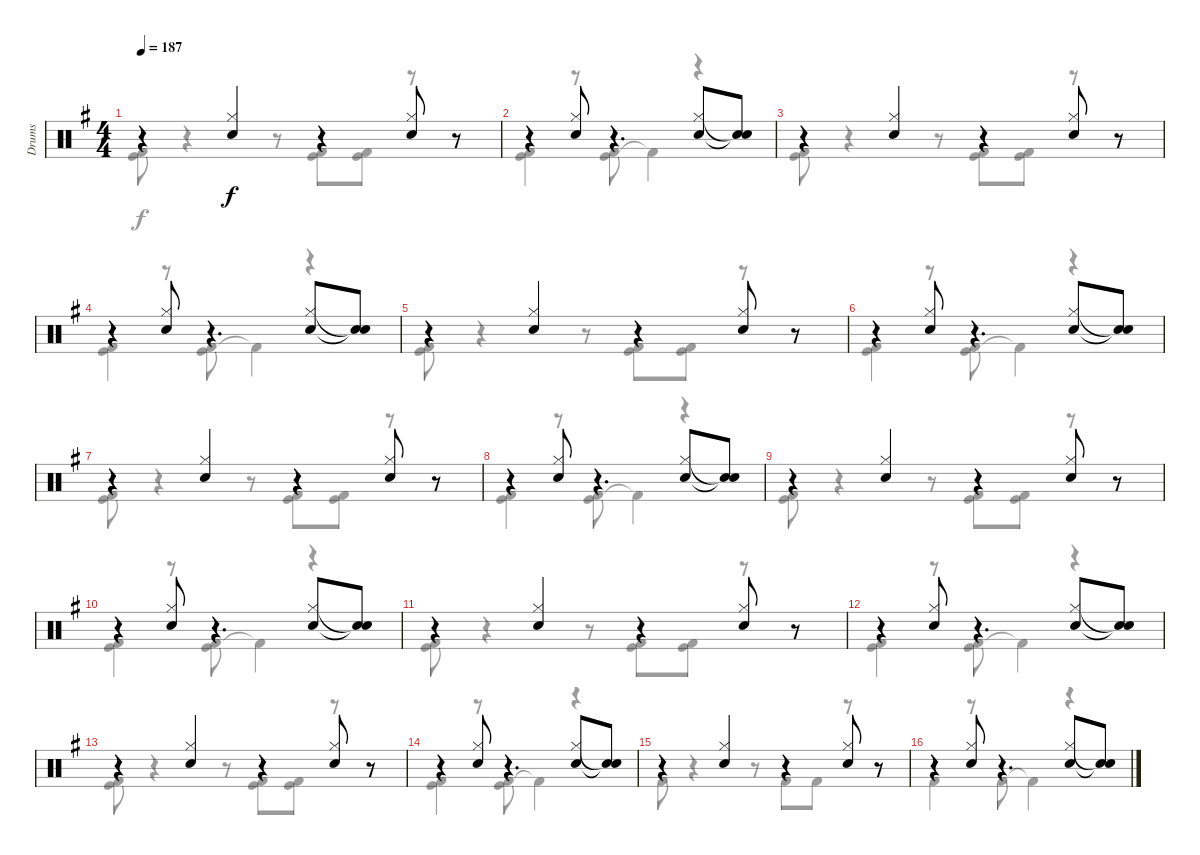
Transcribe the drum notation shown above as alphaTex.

\track ("Drums" "Drums") {instrument percussion}
\staff {score}
\articulation defaults
\voice
\ts (4 4)
\tempo 187
\clef neutral
\ks g
r.4{dy f} ("Hi-Hat (closed)" "Electric Snare (hit)").4 r.4 ("Hi-Hat (closed)" "Electric Snare (hit)").8 r.8 |
r.4 ("Hi-Hat (closed)" "Electric Snare (hit)").8 r.4{d} ("Hi-Hat (closed)" "Electric Snare (hit)").8 ("Snare (hit)"{t} "Snare (hit)"{t}).8 |
r.4 ("Hi-Hat (closed)" "Electric Snare (hit)").4 r.4 ("Hi-Hat (closed)" "Electric Snare (hit)").8 r.8 |
r.4 ("Hi-Hat (closed)" "Electric Snare (hit)").8 r.4{d} ("Hi-Hat (closed)" "Electric Snare (hit)").8 ("Snare (hit)"{t} "Snare (hit)"{t}).8 |
r.4 ("Hi-Hat (closed)" "Electric Snare (hit)").4 r.4 ("Hi-Hat (closed)" "Electric Snare (hit)").8 r.8 |
r.4 ("Hi-Hat (closed)" "Electric Snare (hit)").8 r.4{d} ("Hi-Hat (closed)" "Electric Snare (hit)").8 ("Snare (hit)"{t} "Snare (hit)"{t}).8 |
r.4 ("Hi-Hat (closed)" "Electric Snare (hit)").4 r.4 ("Hi-Hat (closed)" "Electric Snare (hit)").8 r.8 |
r.4 ("Hi-Hat (closed)" "Electric Snare (hit)").8 r.4{d} ("Hi-Hat (closed)" "Electric Snare (hit)").8 ("Snare (hit)"{t} "Snare (hit)"{t}).8 |
r.4 ("Hi-Hat (closed)" "Electric Snare (hit)").4 r.4 ("Hi-Hat (closed)" "Electric Snare (hit)").8 r.8 |
r.4 ("Hi-Hat (closed)" "Electric Snare (hit)").8 r.4{d} ("Hi-Hat (closed)" "Electric Snare (hit)").8 ("Snare (hit)"{t} "Snare (hit)"{t}).8 |
r.4 ("Hi-Hat (closed)" "Electric Snare (hit)").4 r.4 ("Hi-Hat (closed)" "Electric Snare (hit)").8 r.8 |
r.4 ("Hi-Hat (closed)" "Electric Snare (hit)").8 r.4{d} ("Hi-Hat (closed)" "Electric Snare (hit)").8 ("Snare (hit)"{t} "Snare (hit)"{t}).8 |
r.4 ("Hi-Hat (closed)" "Electric Snare (hit)").4 r.4 ("Hi-Hat (closed)" "Electric Snare (hit)").8 r.8 |
r.4 ("Hi-Hat (closed)" "Electric Snare (hit)").8 r.4{d} ("Hi-Hat (closed)" "Electric Snare (hit)").8 ("Snare (hit)"{t} "Snare (hit)"{t}).8 |
r.4 ("Hi-Hat (closed)" "Electric Snare (hit)").4 r.4 ("Hi-Hat (closed)" "Electric Snare (hit)").8 r.8 |
r.4 ("Hi-Hat (closed)" "Electric Snare (hit)").8 r.4{d} ("Hi-Hat (closed)" "Electric Snare (hit)").8 ("Snare (hit)"{t} "Snare (hit)"{t}).8
\voice
\clef neutral
\ottava regular
\simile none
\ks g
("Kick (hit)" "Kick (hit) 2").8{dy f} r.4 r.8 ("Kick (hit)" "Kick (hit) 2").8 ("Kick (hit)" "Kick (hit) 2").8 r.8 r.8 |
("Kick (hit)" "Kick (hit) 2").4 r.8 ("Kick (hit)" "Kick (hit) 2").8 "Kick (hit) 2"{t}.4 r.4 |
("Kick (hit)" "Kick (hit) 2").8 r.4 r.8 ("Kick (hit)" "Kick (hit) 2").8 ("Kick (hit)" "Kick (hit) 2").8 r.8 r.8 |
("Kick (hit)" "Kick (hit) 2").4 r.8 ("Kick (hit)" "Kick (hit) 2").8 "Kick (hit) 2"{t}.4 r.4 |
("Kick (hit)" "Kick (hit) 2").8 r.4 r.8 ("Kick (hit)" "Kick (hit) 2").8 ("Kick (hit)" "Kick (hit) 2").8 r.8 r.8 |
("Kick (hit)" "Kick (hit) 2").4 r.8 ("Kick (hit)" "Kick (hit) 2").8 "Kick (hit) 2"{t}.4 r.4 |
("Kick (hit)" "Kick (hit) 2").8 r.4 r.8 ("Kick (hit)" "Kick (hit) 2").8 ("Kick (hit)" "Kick (hit) 2").8 r.8 r.8 |
("Kick (hit)" "Kick (hit) 2").4 r.8 ("Kick (hit)" "Kick (hit) 2").8 "Kick (hit) 2"{t}.4 r.4 |
("Kick (hit)" "Kick (hit) 2").8 r.4 r.8 ("Kick (hit)" "Kick (hit) 2").8 ("Kick (hit)" "Kick (hit) 2").8 r.8 r.8 |
("Kick (hit)" "Kick (hit) 2").4 r.8 ("Kick (hit)" "Kick (hit) 2").8 "Kick (hit) 2"{t}.4 r.4 |
("Kick (hit)" "Kick (hit) 2").8 r.4 r.8 ("Kick (hit)" "Kick (hit) 2").8 ("Kick (hit)" "Kick (hit) 2").8 r.8 r.8 |
("Kick (hit)" "Kick (hit) 2").4 r.8 ("Kick (hit)" "Kick (hit) 2").8 "Kick (hit) 2"{t}.4 r.4 |
("Kick (hit)" "Kick (hit) 2").8 r.4 r.8 ("Kick (hit)" "Kick (hit) 2").8 ("Kick (hit)" "Kick (hit) 2").8 r.8 r.8 |
("Kick (hit)" "Kick (hit) 2").4 r.8 ("Kick (hit)" "Kick (hit) 2").8 "Kick (hit) 2"{t}.4 r.4 |
"Kick (hit) 2".8 r.4 r.8 "Kick (hit) 2".8 "Kick (hit) 2".8 r.8 r.8 |
"Kick (hit) 2".4 r.8 "Kick (hit) 2".8 "Kick (hit) 2"{t}.4 r.4
